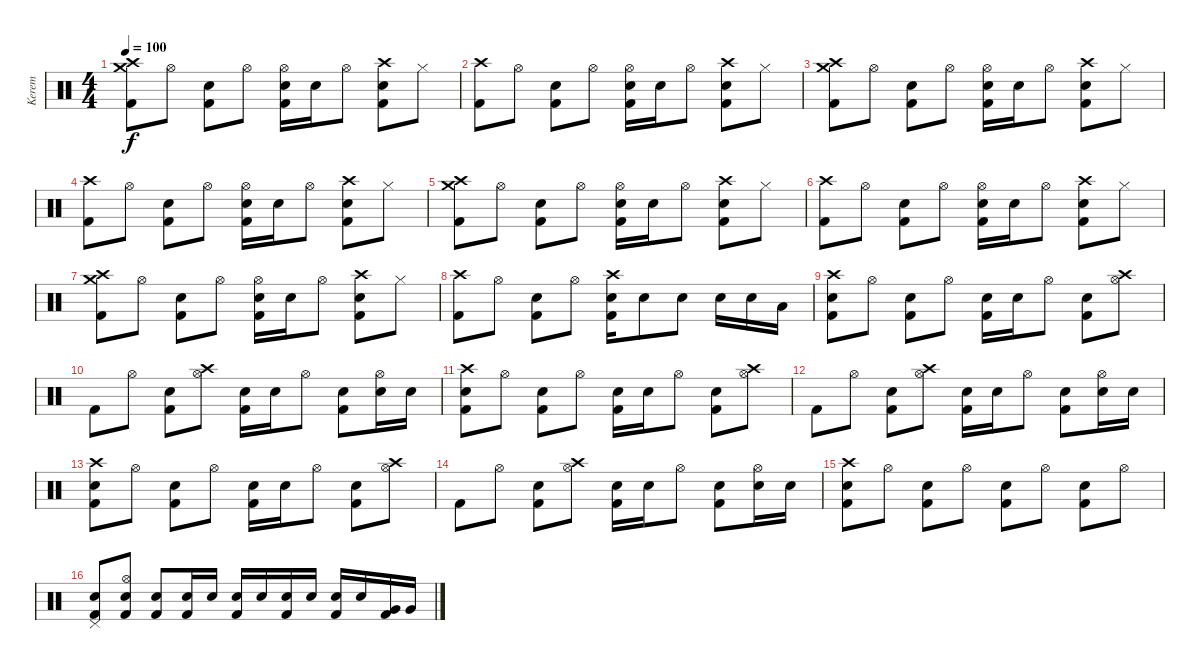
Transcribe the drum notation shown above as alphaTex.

\track ("Kerem" "Kerem") {instrument percussion}
\staff {score}
\articulation defaults
\ts (4 4)
\tempo 100
\clef neutral
\ks c
("Crash high (hit)" "Crash medium (hit)" "Kick (hit) 2").8{dy f} "Hi-Hat (open)".8 ("Electric Snare (hit)" "Kick (hit) 2").8 "Hi-Hat (open)".8 ("Electric Snare (hit)" "Hi-Hat (open)" "Kick (hit) 2").16 "Electric Snare (hit)".16 "Hi-Hat (open)".8 ("Crash high (hit)" "Electric Snare (hit)" "Kick (hit) 2").8 "Hi-Hat (closed)".8 |
("Crash high (hit)" "Kick (hit) 2").8 "Hi-Hat (open)".8 ("Electric Snare (hit)" "Kick (hit) 2").8 "Hi-Hat (open)".8 ("Electric Snare (hit)" "Hi-Hat (open)" "Kick (hit) 2").16 "Electric Snare (hit)".16 "Hi-Hat (open)".8 ("Crash high (hit)" "Electric Snare (hit)" "Kick (hit) 2").8 "Hi-Hat (closed)".8 |
("Crash high (hit)" "Crash medium (hit)" "Kick (hit) 2").8 "Hi-Hat (open)".8 ("Electric Snare (hit)" "Kick (hit) 2").8 "Hi-Hat (open)".8 ("Electric Snare (hit)" "Hi-Hat (open)" "Kick (hit) 2").16 "Electric Snare (hit)".16 "Hi-Hat (open)".8 ("Crash high (hit)" "Electric Snare (hit)" "Kick (hit) 2").8 "Hi-Hat (closed)".8 |
("Crash high (hit)" "Kick (hit) 2").8 "Hi-Hat (open)".8 ("Electric Snare (hit)" "Kick (hit) 2").8 "Hi-Hat (open)".8 ("Electric Snare (hit)" "Hi-Hat (open)" "Kick (hit) 2").16 "Electric Snare (hit)".16 "Hi-Hat (open)".8 ("Crash high (hit)" "Electric Snare (hit)" "Kick (hit) 2").8 "Hi-Hat (closed)".8 |
("Crash high (hit)" "Crash medium (hit)" "Kick (hit) 2").8 "Hi-Hat (open)".8 ("Electric Snare (hit)" "Kick (hit) 2").8 "Hi-Hat (open)".8 ("Electric Snare (hit)" "Hi-Hat (open)" "Kick (hit) 2").16 "Electric Snare (hit)".16 "Hi-Hat (open)".8 ("Crash high (hit)" "Electric Snare (hit)" "Kick (hit) 2").8 "Hi-Hat (closed)".8 |
("Crash high (hit)" "Kick (hit) 2").8 "Hi-Hat (open)".8 ("Electric Snare (hit)" "Kick (hit) 2").8 "Hi-Hat (open)".8 ("Electric Snare (hit)" "Hi-Hat (open)" "Kick (hit) 2").16 "Electric Snare (hit)".16 "Hi-Hat (open)".8 ("Crash high (hit)" "Electric Snare (hit)" "Kick (hit) 2").8 "Hi-Hat (closed)".8 |
("Crash high (hit)" "Crash medium (hit)" "Kick (hit) 2").8 "Hi-Hat (open)".8 ("Electric Snare (hit)" "Kick (hit) 2").8 "Hi-Hat (open)".8 ("Electric Snare (hit)" "Hi-Hat (open)" "Kick (hit) 2").16 "Electric Snare (hit)".16 "Hi-Hat (open)".8 ("Crash high (hit)" "Electric Snare (hit)" "Kick (hit) 2").8 "Hi-Hat (closed)".8 |
("Crash high (hit)" "Kick (hit) 2").8 "Hi-Hat (open)".8 ("Electric Snare (hit)" "Kick (hit) 2").8 "Hi-Hat (open)".8 ("Crash high (hit)" "Electric Snare (hit)" "Kick (hit) 2").16 "Electric Snare (hit)".8 "Electric Snare (hit)".8 "Electric Snare (hit)".16 "Electric Snare (hit)".16 "Low Tom (hit)".16 |
("Crash high (hit)" "Electric Snare (hit)" "Kick (hit) 2").8 "Hi-Hat (open)".8 ("Electric Snare (hit)" "Kick (hit) 2").8 "Hi-Hat (open)".8 ("Electric Snare (hit)" "Kick (hit) 2").16 "Electric Snare (hit)".16 "Hi-Hat (open)".8 ("Electric Snare (hit)" "Kick (hit) 2").8 ("Crash high (hit)" "Hi-Hat (open)").8 |
"Kick (hit) 2".8 "Hi-Hat (open)".8 ("Electric Snare (hit)" "Kick (hit) 2").8 ("Crash high (hit)" "Hi-Hat (open)").8 ("Electric Snare (hit)" "Kick (hit) 2").16 "Electric Snare (hit)".16 "Hi-Hat (open)".8 ("Electric Snare (hit)" "Kick (hit) 2").8 ("Electric Snare (hit)" "Hi-Hat (open)").16 "Electric Snare (hit)".16 |
("Crash high (hit)" "Electric Snare (hit)" "Kick (hit) 2").8 "Hi-Hat (open)".8 ("Electric Snare (hit)" "Kick (hit) 2").8 "Hi-Hat (open)".8 ("Electric Snare (hit)" "Kick (hit) 2").16 "Electric Snare (hit)".16 "Hi-Hat (open)".8 ("Electric Snare (hit)" "Kick (hit) 2").8 ("Crash high (hit)" "Hi-Hat (open)").8 |
"Kick (hit) 2".8 "Hi-Hat (open)".8 ("Electric Snare (hit)" "Kick (hit) 2").8 ("Crash high (hit)" "Hi-Hat (open)").8 ("Electric Snare (hit)" "Kick (hit) 2").16 "Electric Snare (hit)".16 "Hi-Hat (open)".8 ("Electric Snare (hit)" "Kick (hit) 2").8 ("Electric Snare (hit)" "Hi-Hat (open)").16 "Electric Snare (hit)".16 |
("Crash high (hit)" "Electric Snare (hit)" "Kick (hit) 2").8 "Hi-Hat (open)".8 ("Electric Snare (hit)" "Kick (hit) 2").8 "Hi-Hat (open)".8 ("Electric Snare (hit)" "Kick (hit) 2").16 "Electric Snare (hit)".16 "Hi-Hat (open)".8 ("Electric Snare (hit)" "Kick (hit) 2").8 ("Crash high (hit)" "Hi-Hat (open)").8 |
"Kick (hit) 2".8 "Hi-Hat (open)".8 ("Electric Snare (hit)" "Kick (hit) 2").8 ("Crash high (hit)" "Hi-Hat (open)").8 ("Electric Snare (hit)" "Kick (hit) 2").16 "Electric Snare (hit)".16 "Hi-Hat (open)".8 ("Electric Snare (hit)" "Kick (hit) 2").8 ("Electric Snare (hit)" "Hi-Hat (open)").16 "Electric Snare (hit)".16 |
("Crash high (hit)" "Electric Snare (hit)" "Kick (hit) 2").8 "Hi-Hat (open)".8 ("Electric Snare (hit)" "Kick (hit) 2").8 "Hi-Hat (open)".8 ("Electric Snare (hit)" "Kick (hit) 2").8 "Hi-Hat (open)".8 ("Electric Snare (hit)" "Kick (hit) 2").8 "Hi-Hat (open)".8 |
("Pedal Hi-Hat (hit)" "Electric Snare (hit)" "Kick (hit) 2").8 ("Electric Snare (hit)" "Hi-Hat (open)" "Kick (hit) 2").8 ("Electric Snare (hit)" "Kick (hit) 2").8 ("Electric Snare (hit)" "Kick (hit) 2").16 "Electric Snare (hit)".16 ("Electric Snare (hit)" "Kick (hit) 2").16 "Electric Snare (hit)".16 ("Electric Snare (hit)" "Kick (hit) 2").16 "Electric Snare (hit)".16 ("Electric Snare (hit)" "Kick (hit) 2").16 "Electric Snare (hit)".16 ("Very Low Tom (hit)" "Kick (hit) 2").16 "Very Low Tom (hit)".16
